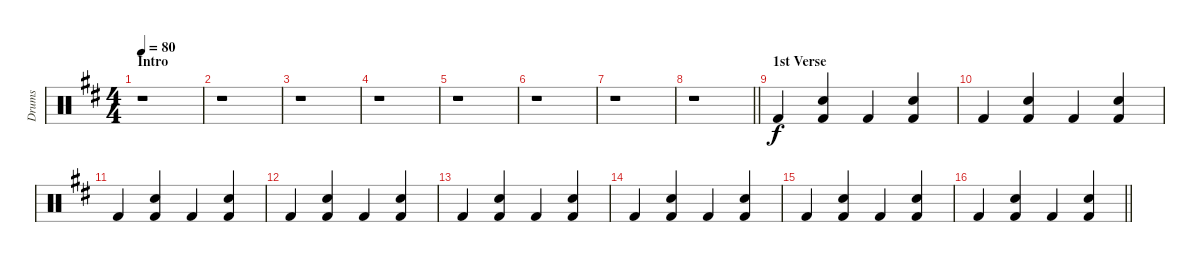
\track ("Drums" "Drums") {instrument percussion}
\staff {score}
\articulation defaults
\ts (4 4)
\section ("" "Intro")
\tempo 80
\clef neutral
\ks d
r.1{dy f} |
r.1 |
r.1 |
r.1 |
r.1 |
r.1 |
r.1 |
\barLineRight lightlight
r.1 |
\section ("" "1st Verse")
"Kick (hit) 2".4 ("Snare (hit) 2" "Kick (hit) 2").4 "Kick (hit) 2".4 ("Snare (hit) 2" "Kick (hit) 2").4 |
"Kick (hit) 2".4 ("Snare (hit) 2" "Kick (hit) 2").4 "Kick (hit) 2".4 ("Snare (hit) 2" "Kick (hit) 2").4 |
"Kick (hit) 2".4 ("Snare (hit) 2" "Kick (hit) 2").4 "Kick (hit) 2".4 ("Snare (hit) 2" "Kick (hit) 2").4 |
"Kick (hit) 2".4 ("Snare (hit) 2" "Kick (hit) 2").4 "Kick (hit) 2".4 ("Snare (hit) 2" "Kick (hit) 2").4 |
"Kick (hit) 2".4 ("Snare (hit) 2" "Kick (hit) 2").4 "Kick (hit) 2".4 ("Snare (hit) 2" "Kick (hit) 2").4 |
"Kick (hit) 2".4 ("Snare (hit) 2" "Kick (hit) 2").4 "Kick (hit) 2".4 ("Snare (hit) 2" "Kick (hit) 2").4 |
"Kick (hit) 2".4 ("Snare (hit) 2" "Kick (hit) 2").4 "Kick (hit) 2".4 ("Snare (hit) 2" "Kick (hit) 2").4 |
\barLineRight lightlight "Kick (hit) 2".4
("Snare (hit) 2" "Kick (hit) 2").4 "Kick (hit) 2".4 ("Snare (hit) 2" "Kick (hit) 2").4
